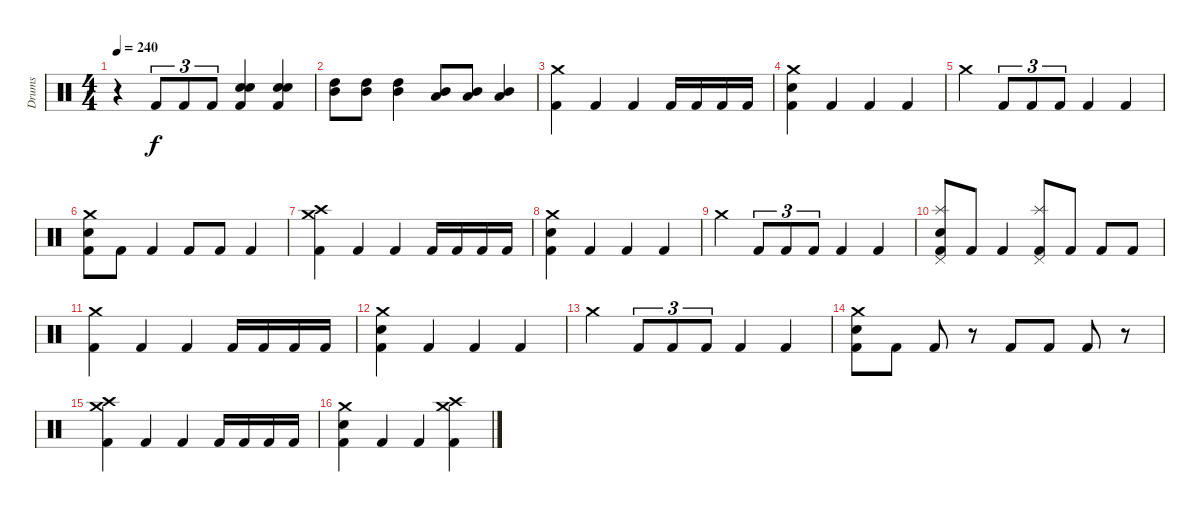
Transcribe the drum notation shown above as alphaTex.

\track ("Drums" "Drums") {instrument percussion}
\staff {score}
\articulation defaults
\ts (4 4)
\tempo 240
\clef neutral
\ks c
r.4{dy f} "Kick (hit) 2".8{tu (3 2)} "Kick (hit) 2".8{tu (3 2)} "Kick (hit) 2".8{tu (3 2)} ("Electric Snare (hit)" "Electric Snare (hit)" "Kick (hit) 2").4 ("Electric Snare (hit)" "Electric Snare (hit)" "Kick (hit) 2").4 |
("Mid Tom (hit)" "High Tom (hit)").8 ("Mid Tom (hit)" "High Tom (hit)").8 ("Mid Tom (hit)" "High Tom (hit)").4 ("Low Tom (hit)" "Mid Tom (hit)").8 ("Mid Tom (hit)" "Low Tom (hit)").8 ("Mid Tom (hit)" "Low Tom (hit)").4 |
("Crash medium (hit)" "Kick (hit) 2").4 "Kick (hit) 2".4 "Kick (hit) 2".4 "Kick (hit) 2".16 "Kick (hit) 2".16 "Kick (hit) 2".16 "Kick (hit) 2".16 |
("Crash medium (hit)" "Electric Snare (hit)" "Kick (hit) 2").4 "Kick (hit) 2".4 "Kick (hit) 2".4 "Kick (hit) 2".4 |
"Crash medium (hit)".4 "Kick (hit) 2".8{tu (3 2)} "Kick (hit) 2".8{tu (3 2)} "Kick (hit) 2".8{tu (3 2)} "Kick (hit) 2".4 "Kick (hit) 2".4 |
("Crash medium (hit)" "Electric Snare (hit)" "Kick (hit) 2").8 "Kick (hit) 2".8 "Kick (hit) 2".4 "Kick (hit) 2".8 "Kick (hit) 2".8 "Kick (hit) 2".4 |
("Crash medium (hit)" "Crash high (hit)" "Kick (hit) 2").4 "Kick (hit) 2".4 "Kick (hit) 2".4 "Kick (hit) 2".16 "Kick (hit) 2".16 "Kick (hit) 2".16 "Kick (hit) 2".16 |
("Crash medium (hit)" "Electric Snare (hit)" "Kick (hit) 2").4 "Kick (hit) 2".4 "Kick (hit) 2".4 "Kick (hit) 2".4 |
"Crash medium (hit)".4 "Kick (hit) 2".8{tu (3 2)} "Kick (hit) 2".8{tu (3 2)} "Kick (hit) 2".8{tu (3 2)} "Kick (hit) 2".4 "Kick (hit) 2".4 |
("Splash (hit)" "Pedal Hi-Hat (hit)" "Electric Snare (hit)" "Kick (hit) 2").8 "Kick (hit) 2".8 "Kick (hit) 2".4 ("Splash (hit)" "Pedal Hi-Hat (hit)" "Kick (hit) 2").8 "Kick (hit) 2".8 "Kick (hit) 2".8 "Kick (hit) 2".8 |
("Crash medium (hit)" "Kick (hit) 2").4 "Kick (hit) 2".4 "Kick (hit) 2".4 "Kick (hit) 2".16 "Kick (hit) 2".16 "Kick (hit) 2".16 "Kick (hit) 2".16 |
("Crash medium (hit)" "Electric Snare (hit)" "Kick (hit) 2").4 "Kick (hit) 2".4 "Kick (hit) 2".4 "Kick (hit) 2".4 |
"Crash medium (hit)".4 "Kick (hit) 2".8{tu (3 2)} "Kick (hit) 2".8{tu (3 2)} "Kick (hit) 2".8{tu (3 2)} "Kick (hit) 2".4 "Kick (hit) 2".4 |
("Crash medium (hit)" "Electric Snare (hit)" "Kick (hit) 2").8 "Kick (hit) 2".8 "Kick (hit) 2".8 r.8 "Kick (hit) 2".8 "Kick (hit) 2".8 "Kick (hit) 2".8 r.8 |
("Crash medium (hit)" "Crash high (hit)" "Kick (hit) 2").4 "Kick (hit) 2".4 "Kick (hit) 2".4 "Kick (hit) 2".16 "Kick (hit) 2".16 "Kick (hit) 2".16 "Kick (hit) 2".16 |
("Crash medium (hit)" "Electric Snare (hit)" "Kick (hit) 2").4 "Kick (hit) 2".4 "Kick (hit) 2".4 ("Crash medium (hit)" "Crash high (hit)" "Kick (hit) 2").4
